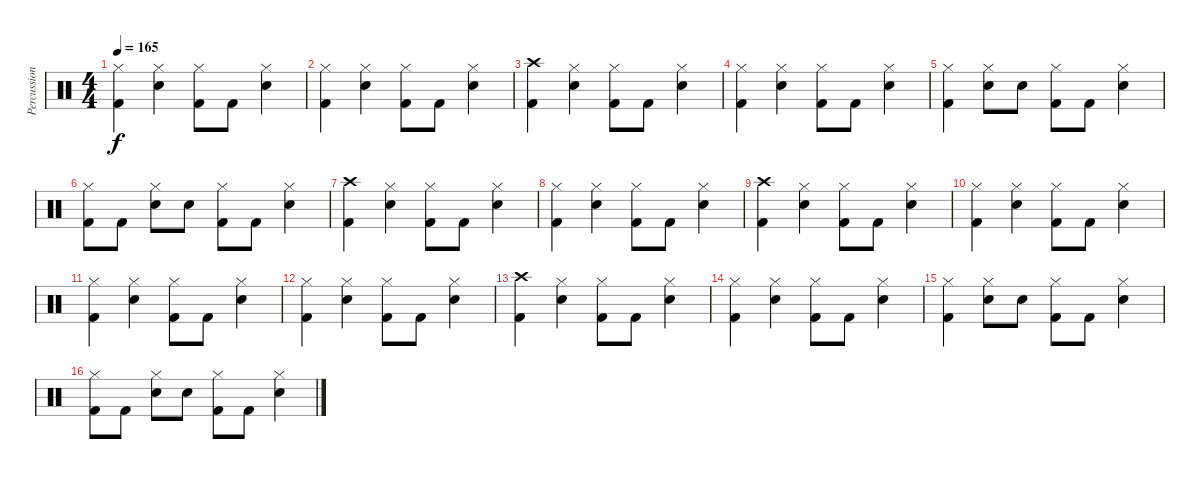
\track ("Percussions" "Percussion") {instrument percussion}
\staff {score}
\articulation defaults
\ts (4 4)
\tempo 165
\clef neutral
\ks c
("Hi-Hat (closed)" "Kick (hit) 2").4{dy f} ("Hi-Hat (closed)" "Electric Snare (hit)").4 ("Hi-Hat (closed)" "Kick (hit) 2").8 "Kick (hit) 2".8 ("Hi-Hat (closed)" "Electric Snare (hit)").4 |
("Hi-Hat (closed)" "Kick (hit) 2").4 ("Hi-Hat (closed)" "Electric Snare (hit)").4 ("Hi-Hat (closed)" "Kick (hit) 2").8 "Kick (hit) 2".8 ("Hi-Hat (closed)" "Electric Snare (hit)").4 |
("Crash high (hit)" "Kick (hit) 2").4 ("Hi-Hat (closed)" "Electric Snare (hit)").4 ("Hi-Hat (closed)" "Kick (hit) 2").8 "Kick (hit) 2".8 ("Hi-Hat (closed)" "Electric Snare (hit)").4 |
("Hi-Hat (closed)" "Kick (hit) 2").4 ("Hi-Hat (closed)" "Electric Snare (hit)").4 ("Hi-Hat (closed)" "Kick (hit) 2").8 "Kick (hit) 2".8 ("Hi-Hat (closed)" "Electric Snare (hit)").4 |
("Hi-Hat (closed)" "Kick (hit) 2").4 ("Hi-Hat (closed)" "Electric Snare (hit)").8 "Electric Snare (hit)".8 ("Hi-Hat (closed)" "Kick (hit) 2").8 "Kick (hit) 2".8 ("Hi-Hat (closed)" "Electric Snare (hit)").4 |
("Hi-Hat (closed)" "Kick (hit) 2").8 "Kick (hit) 2".8 ("Hi-Hat (closed)" "Electric Snare (hit)").8 "Electric Snare (hit)".8 ("Hi-Hat (closed)" "Kick (hit) 2").8 "Kick (hit) 2".8 ("Hi-Hat (closed)" "Electric Snare (hit)").4 |
("Crash high (hit)" "Kick (hit) 2").4 ("Hi-Hat (closed)" "Electric Snare (hit)").4 ("Hi-Hat (closed)" "Kick (hit) 2").8 "Kick (hit) 2".8 ("Hi-Hat (closed)" "Electric Snare (hit)").4 |
("Hi-Hat (closed)" "Kick (hit) 2").4 ("Hi-Hat (closed)" "Electric Snare (hit)").4 ("Hi-Hat (closed)" "Kick (hit) 2").8 "Kick (hit) 2".8 ("Hi-Hat (closed)" "Electric Snare (hit)").4 |
("Crash high (hit)" "Kick (hit) 2").4 ("Hi-Hat (closed)" "Electric Snare (hit)").4 ("Hi-Hat (closed)" "Kick (hit) 2").8 "Kick (hit) 2".8 ("Hi-Hat (closed)" "Electric Snare (hit)").4 |
("Hi-Hat (closed)" "Kick (hit) 2").4 ("Hi-Hat (closed)" "Electric Snare (hit)").4 ("Hi-Hat (closed)" "Kick (hit) 2").8 "Kick (hit) 2".8 ("Hi-Hat (closed)" "Electric Snare (hit)").4 |
("Hi-Hat (closed)" "Kick (hit) 2").4 ("Hi-Hat (closed)" "Electric Snare (hit)").4 ("Hi-Hat (closed)" "Kick (hit) 2").8 "Kick (hit) 2".8 ("Hi-Hat (closed)" "Electric Snare (hit)").4 |
("Hi-Hat (closed)" "Kick (hit) 2").4 ("Hi-Hat (closed)" "Electric Snare (hit)").4 ("Hi-Hat (closed)" "Kick (hit) 2").8 "Kick (hit) 2".8 ("Hi-Hat (closed)" "Electric Snare (hit)").4 |
("Crash high (hit)" "Kick (hit) 2").4 ("Hi-Hat (closed)" "Electric Snare (hit)").4 ("Hi-Hat (closed)" "Kick (hit) 2").8 "Kick (hit) 2".8 ("Hi-Hat (closed)" "Electric Snare (hit)").4 |
("Hi-Hat (closed)" "Kick (hit) 2").4 ("Hi-Hat (closed)" "Electric Snare (hit)").4 ("Hi-Hat (closed)" "Kick (hit) 2").8 "Kick (hit) 2".8 ("Hi-Hat (closed)" "Electric Snare (hit)").4 |
("Hi-Hat (closed)" "Kick (hit) 2").4 ("Hi-Hat (closed)" "Electric Snare (hit)").8 "Electric Snare (hit)".8 ("Hi-Hat (closed)" "Kick (hit) 2").8 "Kick (hit) 2".8 ("Hi-Hat (closed)" "Electric Snare (hit)").4 |
("Hi-Hat (closed)" "Kick (hit) 2").8 "Kick (hit) 2".8 ("Hi-Hat (closed)" "Electric Snare (hit)").8 "Electric Snare (hit)".8 ("Hi-Hat (closed)" "Kick (hit) 2").8 "Kick (hit) 2".8 ("Hi-Hat (closed)" "Electric Snare (hit)").4
